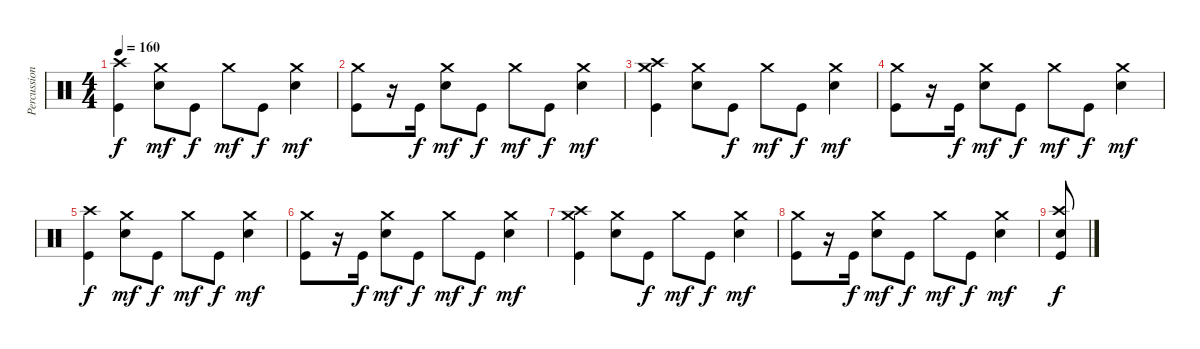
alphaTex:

\track ("Percussion" "Percussion") {instrument percussion}
\staff {score}
\articulation defaults
\ts (4 4)
\tempo 160
\clef neutral
\ks c
("Kick (hit)" "Crash high (hit)").4{dy f} ("Electric Snare (hit)" "Crash medium (hit)").8{dy mf} "Kick (hit)".8{dy f} "Crash medium (hit)".8{dy mf} "Kick (hit)".8{dy f} ("Electric Snare (hit)" "Crash medium (hit)").4{dy mf} |
("Kick (hit)" "Crash medium (hit)").8 r.16 "Kick (hit)".16{dy f} ("Electric Snare (hit)" "Crash medium (hit)").8{dy mf} "Kick (hit)".8{dy f} "Crash medium (hit)".8{dy mf} "Kick (hit)".8{dy f} ("Electric Snare (hit)" "Crash medium (hit)").4{dy mf} |
("Kick (hit)" "Crash medium (hit)" "Crash high (hit)").4 ("Electric Snare (hit)" "Crash medium (hit)").8 "Kick (hit)".8{dy f} "Crash medium (hit)".8{dy mf} "Kick (hit)".8{dy f} ("Electric Snare (hit)" "Crash medium (hit)").4{dy mf} |
("Kick (hit)" "Crash medium (hit)").8 r.16 "Kick (hit)".16{dy f} ("Electric Snare (hit)" "Crash medium (hit)").8{dy mf} "Kick (hit)".8{dy f} "Crash medium (hit)".8{dy mf} "Kick (hit)".8{dy f} ("Electric Snare (hit)" "Crash medium (hit)").4{dy mf} |
("Kick (hit)" "Crash high (hit)").4{dy f} ("Electric Snare (hit)" "Crash medium (hit)").8{dy mf} "Kick (hit)".8{dy f} "Crash medium (hit)".8{dy mf} "Kick (hit)".8{dy f} ("Electric Snare (hit)" "Crash medium (hit)").4{dy mf} |
("Kick (hit)" "Crash medium (hit)").8 r.16 "Kick (hit)".16{dy f} ("Electric Snare (hit)" "Crash medium (hit)").8{dy mf} "Kick (hit)".8{dy f} "Crash medium (hit)".8{dy mf} "Kick (hit)".8{dy f} ("Electric Snare (hit)" "Crash medium (hit)").4{dy mf} |
("Kick (hit)" "Crash medium (hit)" "Crash high (hit)").4 ("Electric Snare (hit)" "Crash medium (hit)").8 "Kick (hit)".8{dy f} "Crash medium (hit)".8{dy mf} "Kick (hit)".8{dy f} ("Electric Snare (hit)" "Crash medium (hit)").4{dy mf} |
("Kick (hit)" "Crash medium (hit)").8 r.16 "Kick (hit)".16{dy f} ("Electric Snare (hit)" "Crash medium (hit)").8{dy mf} "Kick (hit)".8{dy f} "Crash medium (hit)".8{dy mf} "Kick (hit)".8{dy f} ("Electric Snare (hit)" "Crash medium (hit)").4{dy mf} |
("Electric Snare (hit)" "Crash high (hit)" "Kick (hit)").8{dy f}
